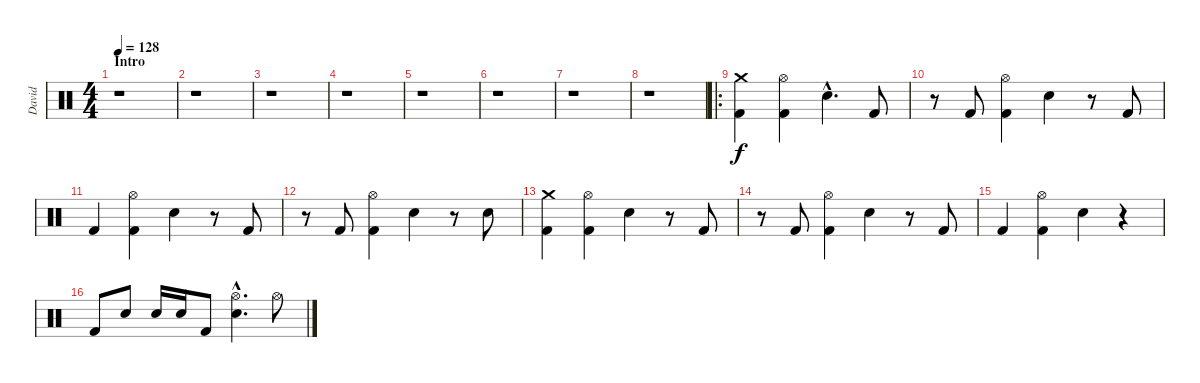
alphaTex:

\track ("David" "David") {instrument percussion}
\staff {score}
\articulation defaults
\ts (4 4)
\section ("" "Intro")
\tempo 128
\clef neutral
\ks c
r.1{dy f} |
r.1 |
r.1 |
r.1 |
r.1 |
r.1 |
r.1 |
r.1 |
\ro
("Crash medium (hit)" "Kick (hit) 2").4 ("Hi-Hat (open)" "Kick (hit) 2").4 "Snare (hit) 2"{hac}.4{d} "Kick (hit) 2".8 |
r.8 "Kick (hit) 2".8 ("Hi-Hat (open)" "Kick (hit) 2").4 "Snare (hit) 2".4 r.8 "Kick (hit) 2".8 |
"Kick (hit) 2".4 ("Hi-Hat (open)" "Kick (hit) 2").4 "Snare (hit) 2".4 r.8 "Kick (hit) 2".8 |
r.8 "Kick (hit) 2".8 ("Hi-Hat (open)" "Kick (hit) 2").4 "Snare (hit) 2".4 r.8 "Snare (hit) 2".8 |
("Crash medium (hit)" "Kick (hit) 2").4 ("Hi-Hat (open)" "Kick (hit) 2").4 "Snare (hit) 2".4 r.8 "Kick (hit) 2".8 |
r.8 "Kick (hit) 2".8 ("Hi-Hat (open)" "Kick (hit) 2").4 "Snare (hit) 2".4 r.8 "Kick (hit) 2".8 |
"Kick (hit) 2".4 ("Hi-Hat (open)" "Kick (hit) 2").4 "Snare (hit) 2".4 r.4 |
"Kick (hit) 2".8 "Snare (hit) 2".8 "Snare (hit) 2".16 "Snare (hit) 2".16 "Kick (hit) 2".8 ("Hi-Hat (open)"{hac} "Snare (hit) 2"{hac}).4{d} "Hi-Hat (open)".8
